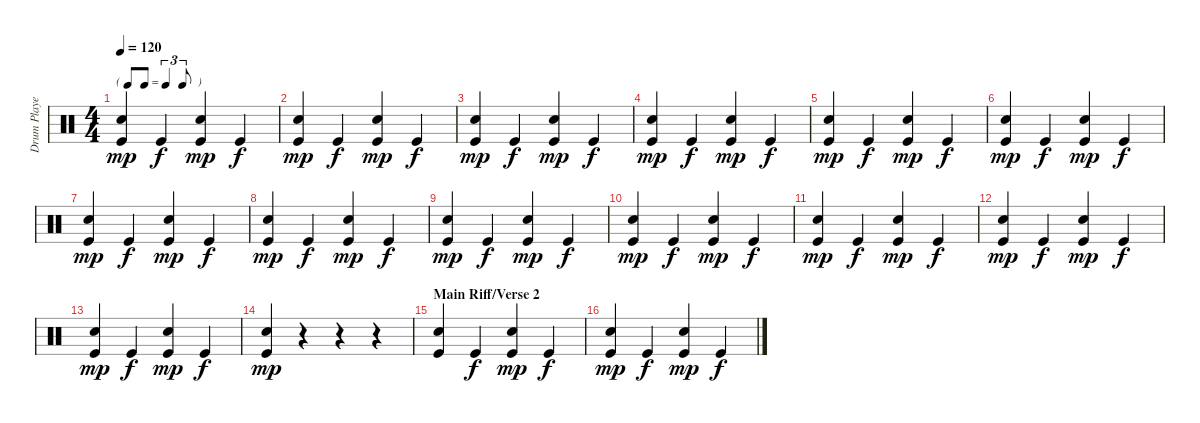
\track ("Drum Player" "Drum Playe") {instrument percussion}
\staff {score}
\articulation defaults
\ts (4 4)
\tf triplet8th
\tempo 120
\clef neutral
\ks c
("Hand Clap (hit)" "Kick (hit)").4{dy mp} "Kick (hit)".4{dy f} ("Hand Clap (hit)" "Kick (hit)").4{dy mp} "Kick (hit)".4{dy f} |
("Hand Clap (hit)" "Kick (hit)").4{dy mp} "Kick (hit)".4{dy f} ("Hand Clap (hit)" "Kick (hit)").4{dy mp} "Kick (hit)".4{dy f} |
("Hand Clap (hit)" "Kick (hit)").4{dy mp} "Kick (hit)".4{dy f} ("Hand Clap (hit)" "Kick (hit)").4{dy mp} "Kick (hit)".4{dy f} |
("Hand Clap (hit)" "Kick (hit)").4{dy mp} "Kick (hit)".4{dy f} ("Hand Clap (hit)" "Kick (hit)").4{dy mp} "Kick (hit)".4{dy f} |
("Hand Clap (hit)" "Kick (hit)").4{dy mp} "Kick (hit)".4{dy f} ("Hand Clap (hit)" "Kick (hit)").4{dy mp} "Kick (hit)".4{dy f} |
("Hand Clap (hit)" "Kick (hit)").4{dy mp} "Kick (hit)".4{dy f} ("Hand Clap (hit)" "Kick (hit)").4{dy mp} "Kick (hit)".4{dy f} |
("Hand Clap (hit)" "Kick (hit)").4{dy mp} "Kick (hit)".4{dy f} ("Hand Clap (hit)" "Kick (hit)").4{dy mp} "Kick (hit)".4{dy f} |
("Hand Clap (hit)" "Kick (hit)").4{dy mp} "Kick (hit)".4{dy f} ("Hand Clap (hit)" "Kick (hit)").4{dy mp} "Kick (hit)".4{dy f} |
("Hand Clap (hit)" "Kick (hit)").4{dy mp} "Kick (hit)".4{dy f} ("Hand Clap (hit)" "Kick (hit)").4{dy mp} "Kick (hit)".4{dy f} |
("Hand Clap (hit)" "Kick (hit)").4{dy mp} "Kick (hit)".4{dy f} ("Hand Clap (hit)" "Kick (hit)").4{dy mp} "Kick (hit)".4{dy f} |
("Hand Clap (hit)" "Kick (hit)").4{dy mp} "Kick (hit)".4{dy f} ("Hand Clap (hit)" "Kick (hit)").4{dy mp} "Kick (hit)".4{dy f} |
("Hand Clap (hit)" "Kick (hit)").4{dy mp} "Kick (hit)".4{dy f} ("Hand Clap (hit)" "Kick (hit)").4{dy mp} "Kick (hit)".4{dy f} |
("Hand Clap (hit)" "Kick (hit)").4{dy mp} "Kick (hit)".4{dy f} ("Hand Clap (hit)" "Kick (hit)").4{dy mp} "Kick (hit)".4{dy f} |
("Hand Clap (hit)" "Kick (hit)").4{dy mp} r.4 r.4 r.4 |
\section ("" "Main Riff/Verse 2")
("Hand Clap (hit)" "Kick (hit)").4 "Kick (hit)".4{dy f} ("Hand Clap (hit)" "Kick (hit)").4{dy mp} "Kick (hit)".4{dy f} |
("Hand Clap (hit)" "Kick (hit)").4{dy mp} "Kick (hit)".4{dy f} ("Hand Clap (hit)" "Kick (hit)").4{dy mp} "Kick (hit)".4{dy f}
